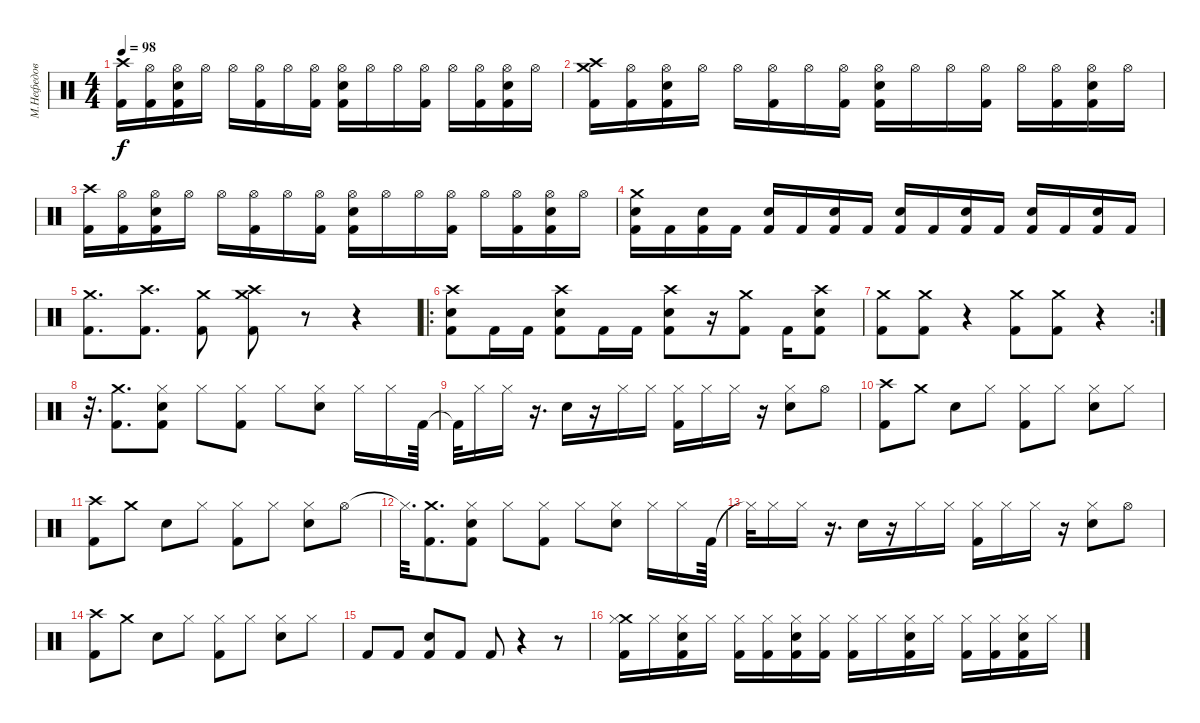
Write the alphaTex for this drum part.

\track ("М.Нефедов" "М.Нефедов") {instrument percussion}
\staff {score}
\articulation defaults
\ts (4 4)
\tempo 98
\clef neutral
\ks c
("Crash high (hit)" "Kick (hit) 2").16{dy f} ("Hi-Hat (open)" "Kick (hit) 2").16 ("Hi-Hat (open)" "Snare (hit) 2" "Kick (hit) 2").16 "Hi-Hat (open)".16 "Hi-Hat (open)".16 ("Hi-Hat (open)" "Kick (hit) 2").16 "Hi-Hat (open)".16 ("Hi-Hat (open)" "Kick (hit) 2").16 ("Hi-Hat (open)" "Snare (hit) 2" "Kick (hit) 2").16 "Hi-Hat (open)".16 "Hi-Hat (open)".16 ("Hi-Hat (open)" "Kick (hit) 2").16 "Hi-Hat (open)".16 ("Hi-Hat (open)" "Kick (hit) 2").16 ("Hi-Hat (open)" "Snare (hit) 2" "Kick (hit) 2").16 "Hi-Hat (open)".16 |
("Crash medium (hit)" "Crash high (hit)" "Kick (hit) 2").16 ("Hi-Hat (open)" "Kick (hit) 2").16 ("Hi-Hat (open)" "Snare (hit) 2" "Kick (hit) 2").16 "Hi-Hat (open)".16 "Hi-Hat (open)".16 ("Hi-Hat (open)" "Kick (hit) 2").16 "Hi-Hat (open)".16 ("Hi-Hat (open)" "Kick (hit) 2").16 ("Hi-Hat (open)" "Snare (hit) 2" "Kick (hit) 2").16 "Hi-Hat (open)".16 "Hi-Hat (open)".16 ("Hi-Hat (open)" "Kick (hit) 2").16 "Hi-Hat (open)".16 ("Hi-Hat (open)" "Kick (hit) 2").16 ("Hi-Hat (open)" "Snare (hit) 2" "Kick (hit) 2").16 "Hi-Hat (open)".16 |
("Crash high (hit)" "Kick (hit) 2").16 ("Hi-Hat (open)" "Kick (hit) 2").16 ("Hi-Hat (open)" "Snare (hit) 2" "Kick (hit) 2").16 "Hi-Hat (open)".16 "Hi-Hat (open)".16 ("Hi-Hat (open)" "Kick (hit) 2").16 "Hi-Hat (open)".16 ("Hi-Hat (open)" "Kick (hit) 2").16 ("Hi-Hat (open)" "Snare (hit) 2" "Kick (hit) 2").16 "Hi-Hat (open)".16 "Hi-Hat (open)".16 ("Hi-Hat (open)" "Kick (hit) 2").16 "Hi-Hat (open)".16 ("Hi-Hat (open)" "Kick (hit) 2").16 ("Hi-Hat (open)" "Snare (hit) 2" "Kick (hit) 2").16 "Hi-Hat (open)".16 |
("Crash medium (hit)" "Snare (hit) 2" "Kick (hit) 2").16 "Kick (hit) 2".16 ("Snare (hit) 2" "Kick (hit) 2").16 "Kick (hit) 2".16 ("Snare (hit) 2" "Kick (hit) 2").16 "Kick (hit) 2".16 ("Snare (hit) 2" "Kick (hit) 2").16 "Kick (hit) 2".16 ("Snare (hit) 2" "Kick (hit) 2").16 "Kick (hit) 2".16 ("Snare (hit) 2" "Kick (hit) 2").16 "Kick (hit) 2".16 ("Snare (hit) 2" "Kick (hit) 2").16 "Kick (hit) 2".16 ("Snare (hit) 2" "Kick (hit) 2").16 "Kick (hit) 2".16 |
("Crash medium (hit)" "Kick (hit) 2").8{d} ("Crash high (hit)" "Kick (hit) 2").8{d} ("Crash medium (hit)" "Kick (hit) 2").8 ("Crash medium (hit)" "Crash high (hit)" "Kick (hit) 2").8 r.8 r.4 |
\ro
("Crash high (hit)" "Snare (hit) 2" "Kick (hit) 2").8 "Kick (hit) 2".16 "Kick (hit) 2".16 ("Crash high (hit)" "Snare (hit) 2" "Kick (hit) 2").8 "Kick (hit) 2".16 "Kick (hit) 2".16 ("Crash high (hit)" "Snare (hit) 2" "Kick (hit) 2").8 r.16 ("Crash medium (hit)" "Kick (hit) 2").8 "Kick (hit) 2".16 ("Crash high (hit)" "Snare (hit) 2" "Kick (hit) 2").8 |
\rc 2
("Crash medium (hit)" "Kick (hit) 2").8 ("Crash medium (hit)" "Kick (hit) 2").8 r.4 ("Crash medium (hit)" "Kick (hit) 2").8 ("Crash medium (hit)" "Kick (hit) 2").8 r.4 |
r.32{d} ("Crash medium (hit)" "Kick (hit) 2").8{d} ("Hi-Hat (closed)" "Snare (hit) 2" "Kick (hit) 2").8 "Hi-Hat (closed)".8 ("Hi-Hat (closed)" "Kick (hit) 2").8 "Hi-Hat (closed)".8 ("Hi-Hat (closed)" "Snare (hit) 2").8 "Hi-Hat (closed)".16 "Hi-Hat (closed)".16 "Kick (hit) 2".64 |
"Kick (hit) 2"{t}.32 "Hi-Hat (closed)".16 "Hi-Hat (closed)".16 r.16{d} "Snare (hit) 2".16 r.16 "Hi-Hat (closed)".16 "Hi-Hat (closed)".16 ("Hi-Hat (closed)" "Kick (hit) 2").16 "Hi-Hat (closed)".16 "Hi-Hat (closed)".16 r.16 ("Hi-Hat (closed)" "Snare (hit) 2").8 "Hi-Hat (open)".8 |
("Crash high (hit)" "Kick (hit) 2").8 "Crash medium (hit)".8 "Snare (hit) 2".8 "Hi-Hat (closed)".8 ("Hi-Hat (closed)" "Kick (hit) 2").8 "Hi-Hat (closed)".8 ("Hi-Hat (closed)" "Snare (hit) 2").8 "Hi-Hat (closed)".8 |
("Crash high (hit)" "Kick (hit) 2").8 "Crash medium (hit)".8 "Snare (hit) 2".8 "Hi-Hat (closed)".8 ("Hi-Hat (closed)" "Kick (hit) 2").8 "Hi-Hat (closed)".8 ("Hi-Hat (closed)" "Snare (hit) 2").8 "Hi-Hat (open)".8 |
"Hi-Hat (closed)"{t}.32{d} ("Crash medium (hit)" "Kick (hit) 2").8{d} ("Hi-Hat (closed)" "Snare (hit) 2" "Kick (hit) 2").8 "Hi-Hat (closed)".8 ("Hi-Hat (closed)" "Kick (hit) 2").8 "Hi-Hat (closed)".8 ("Hi-Hat (closed)" "Snare (hit) 2").8 "Hi-Hat (closed)".16 "Hi-Hat (closed)".16 "Kick (hit) 2".64 |
"Hi-Hat (closed)"{t}.32 "Hi-Hat (closed)".16 "Hi-Hat (closed)".16 r.16{d} "Snare (hit) 2".16 r.16 "Hi-Hat (closed)".16 "Hi-Hat (closed)".16 ("Hi-Hat (closed)" "Kick (hit) 2").16 "Hi-Hat (closed)".16 "Hi-Hat (closed)".16 r.16 ("Hi-Hat (closed)" "Snare (hit) 2").8 "Hi-Hat (open)".8 |
("Crash high (hit)" "Kick (hit) 2").8 "Crash medium (hit)".8 "Snare (hit) 2".8 "Hi-Hat (closed)".8 ("Hi-Hat (closed)" "Kick (hit) 2").8 "Hi-Hat (closed)".8 ("Hi-Hat (closed)" "Snare (hit) 2").8 "Hi-Hat (closed)".8 |
"Kick (hit) 2".8 "Kick (hit) 2".8 ("Snare (hit) 2" "Kick (hit) 2").8 "Kick (hit) 2".8 "Kick (hit) 2".8 r.4 r.8 |
("Crash medium (hit)" "Hi-Hat (closed)" "Kick (hit) 2").16 "Hi-Hat (closed)".16 ("Hi-Hat (closed)" "Snare (hit) 2" "Kick (hit) 2").16 "Hi-Hat (closed)".16 ("Hi-Hat (closed)" "Kick (hit) 2").16 ("Hi-Hat (closed)" "Kick (hit) 2").16 ("Hi-Hat (closed)" "Snare (hit) 2" "Kick (hit) 2").16 ("Hi-Hat (closed)" "Kick (hit) 2").16 ("Hi-Hat (closed)" "Kick (hit) 2").16 "Hi-Hat (closed)".16 ("Hi-Hat (closed)" "Snare (hit) 2" "Kick (hit) 2").16 "Hi-Hat (closed)".16 ("Hi-Hat (closed)" "Kick (hit) 2").16 ("Hi-Hat (closed)" "Kick (hit) 2").16 ("Hi-Hat (closed)" "Snare (hit) 2" "Kick (hit) 2").16 "Hi-Hat (closed)".16
